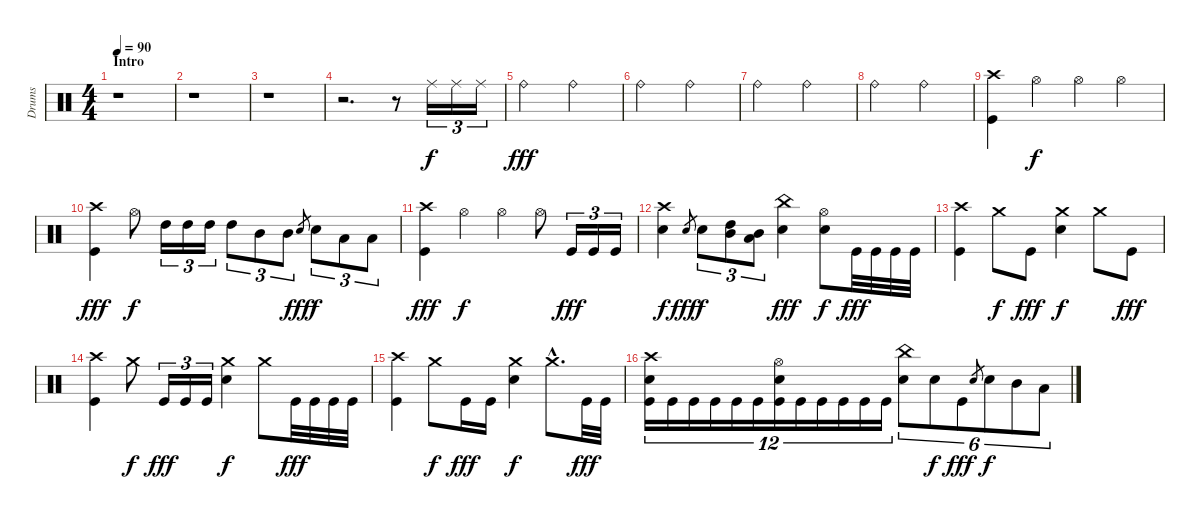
\track ("Drums" "Drums") {instrument percussion}
\staff {score}
\articulation defaults
\ts (4 4)
\section ("" "Intro")
\tempo 90
\clef neutral
\ks c
r.1{dy f} |
r.1 |
r.1 |
r.2{d} r.8 "Ride (middle)".16{tu (3 2)} "Ride (middle)".16{tu (3 2)} "Ride (middle)".16{tu (3 2)} |
"Ride (bell)".2{dy fff} "Ride (bell)".2 |
"Ride (bell)".2 "Ride (bell)".2 |
"Ride (bell)".2 "Ride (bell)".2 |
"Ride (bell)".2 "Ride (bell)".2 |
("Crash high (hit)" "Kick (hit)").4 "Hi-Hat (open)".4{dy f} "Hi-Hat (open)".4 "Hi-Hat (open)".4 |
("Crash high (hit)" "Kick (hit)").4{dy fff} "Hi-Hat (open)".8{dy f} "High Tom (hit)".16{tu (3 2)} "High Tom (hit)".16{tu (3 2)} "High Tom (hit)".16{tu (3 2)} "High Tom (hit)".8{tu (3 2)} "Mid Tom (hit)".8{tu (3 2)} "Mid Tom (hit)".8{tu (3 2)} "Electric Snare (hit)".8{gr dy fff} "Electric Snare (hit)".8{tu (3 2) dy f} "Low Tom (hit)".8{tu (3 2)} "Low Tom (hit)".8{tu (3 2)} |
("Crash high (hit)" "Kick (hit)").4{dy fff} "Hi-Hat (open)".4{dy f} "Hi-Hat (open)".4 "Hi-Hat (open)".8 "Kick (hit)".16{tu (3 2) dy fff} "Kick (hit)".16{tu (3 2)} "Kick (hit)".16{tu (3 2)} |
("Crash high (hit)" "Electric Snare (hit)").4{dy f} "Electric Snare (hit)".8{gr dy fff} "Electric Snare (hit)".8{tu (3 2) dy f} ("High Tom (hit)" "Mid Tom (hit)").8{tu (3 2)} ("Mid Tom (hit)" "Low Tom (hit)").8{tu (3 2)} ("China (hit)" "Electric Snare (hit)").4{dy fff} ("Hi-Hat (open)" "Electric Snare (hit)").8{dy f} "Kick (hit)".32{dy fff} "Kick (hit)".32 "Kick (hit)".32 "Kick (hit)".32 |
("Crash high (hit)" "Kick (hit)").4 "Crash medium (hit)".8{dy f} "Kick (hit)".8{dy fff} ("Crash medium (hit)" "Electric Snare (hit)").4{dy f} "Crash medium (hit)".8 "Kick (hit)".8{dy fff} |
("Crash high (hit)" "Kick (hit)").4 "Crash medium (hit)".8{dy f} "Kick (hit)".16{tu (3 2) dy fff} "Kick (hit)".16{tu (3 2)} "Kick (hit)".16{tu (3 2)} ("Crash medium (hit)" "Electric Snare (hit)").4{dy f} "Crash medium (hit)".8 "Kick (hit)".32{dy fff} "Kick (hit)".32 "Kick (hit)".32 "Kick (hit)".32 |
("Crash high (hit)" "Kick (hit)").4 "Crash medium (hit)".8{dy f} "Kick (hit)".16{dy fff} "Kick (hit)".16 ("Crash medium (hit)" "Electric Snare (hit)").4{dy f} "Crash medium (hit)"{hac}.8{d} "Kick (hit)".32{dy fff} "Kick (hit)".32 |
("Crash high (hit)" "Electric Snare (hit)" "Kick (hit)").16{tu (12 8)} "Kick (hit)".16{tu (12 8)} "Kick (hit)".16{tu (12 8)} "Kick (hit)".16{tu (12 8)} "Kick (hit)".16{tu (12 8)} "Kick (hit)".16{tu (12 8)} ("Hi-Hat (open)" "Electric Snare (hit)" "Kick (hit)").16{tu (12 8)} "Kick (hit)".16{tu (12 8)} "Kick (hit)".16{tu (12 8)} "Kick (hit)".16{tu (12 8)} "Kick (hit)".16{tu (12 8)} "Kick (hit)".16{tu (12 8)} ("China (hit)" "Electric Snare (hit)").8{tu (6 4)} "Electric Snare (hit)".8{tu (6 4) dy f} "Kick (hit)".8{tu (6 4) dy fff} "Electric Snare (hit)".8{gr} "Electric Snare (hit)".8{tu (6 4) dy f} "Mid Tom (hit)".8{tu (6 4)} "Low Tom (hit)".8{tu (6 4)}
